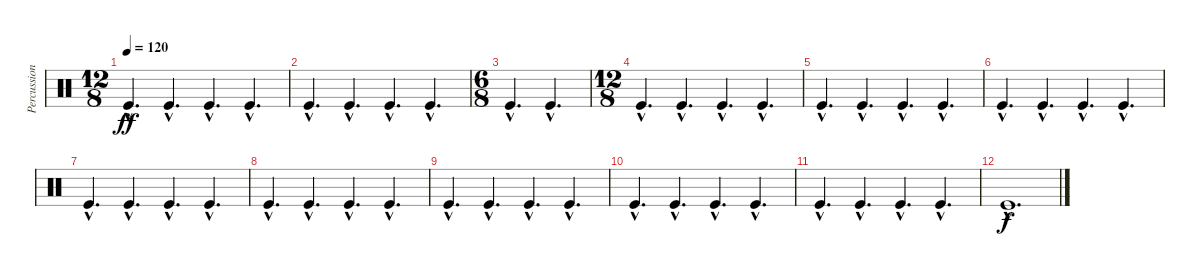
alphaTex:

\track ("Percussions" "Percussion") {instrument percussion}
\staff {score}
\articulation defaults
\ts (12 8)
\tempo 120
\clef neutral
\ks c "Kick (hit)"{hac}.4{d dy ff} "Kick (hit)"{hac}.4{d} "Kick (hit)"{hac}.4{d} "Kick (hit)"{hac}.4{d}
|
"Kick (hit)"{hac}.4{d} "Kick (hit)"{hac}.4{d} "Kick (hit)"{hac}.4{d} "Kick (hit)"{hac}.4{d} |
\ts (6 8)
"Kick (hit)"{hac}.4{d} "Kick (hit)"{hac}.4{d} |
\ts (12 8)
"Kick (hit)"{hac}.4{d} "Kick (hit)"{hac}.4{d} "Kick (hit)"{hac}.4{d} "Kick (hit)"{hac}.4{d} |
"Kick (hit)"{hac}.4{d} "Kick (hit)"{hac}.4{d} "Kick (hit)"{hac}.4{d} "Kick (hit)"{hac}.4{d} |
"Kick (hit)"{hac}.4{d} "Kick (hit)"{hac}.4{d} "Kick (hit)"{hac}.4{d} "Kick (hit)"{hac}.4{d} |
"Kick (hit)"{hac}.4{d} "Kick (hit)"{hac}.4{d} "Kick (hit)"{hac}.4{d} "Kick (hit)"{hac}.4{d} |
"Kick (hit)"{hac}.4{d} "Kick (hit)"{hac}.4{d} "Kick (hit)"{hac}.4{d} "Kick (hit)"{hac}.4{d} |
"Kick (hit)"{hac}.4{d} "Kick (hit)"{hac}.4{d} "Kick (hit)"{hac}.4{d} "Kick (hit)"{hac}.4{d} |
"Kick (hit)"{hac}.4{d} "Kick (hit)"{hac}.4{d} "Kick (hit)"{hac}.4{d} "Kick (hit)"{hac}.4{d} |
"Kick (hit)"{hac}.4{d} "Kick (hit)"{hac}.4{d} "Kick (hit)"{hac}.4{d} "Kick (hit)"{hac}.4{d} |
"Kick (hit)"{hac}.1{d dy f}
